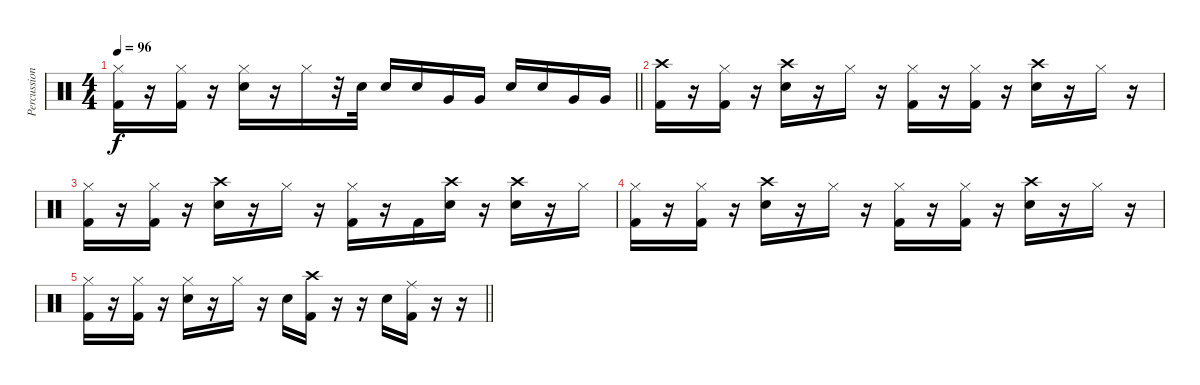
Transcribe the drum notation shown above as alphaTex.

\track ("Percussion" "Percussion") {instrument percussion}
\staff {score}
\articulation defaults
\ts (4 4)
\tempo 96
\clef neutral
\barLineRight lightlight
\ks c
("Hi-Hat (closed)" "Kick (hit) 2").16{dy f} r.16 ("Hi-Hat (closed)" "Kick (hit) 2").16 r.16 ("Hi-Hat (closed)" "Snare (hit) 2").16 r.16 "Hi-Hat (closed)".16 r.32 "Snare (hit) 2".32 "Snare (hit) 2".16 "Snare (hit) 2".16 "Very Low Tom (hit)".16 "Very Low Tom (hit)".16 "Snare (hit) 2".16 "Snare (hit) 2".16 "Very Low Tom (hit)".16 "Very Low Tom (hit)".16 |
("Crash high (hit)" "Kick (hit) 2").16 r.16 ("Hi-Hat (closed)" "Kick (hit) 2").16 r.16 ("Crash high (hit)" "Snare (hit) 2").16 r.16 "Hi-Hat (closed)".16 r.16 ("Hi-Hat (closed)" "Kick (hit) 2").16 r.16 ("Hi-Hat (closed)" "Kick (hit) 2").16 r.16 ("Crash high (hit)" "Snare (hit) 2").16 r.16 "Hi-Hat (closed)".16 r.16 |
("Hi-Hat (closed)" "Kick (hit) 2").16 r.16 ("Hi-Hat (closed)" "Kick (hit) 2").16 r.16 ("Crash high (hit)" "Snare (hit) 2").16 r.16 "Hi-Hat (closed)".16 r.16 ("Hi-Hat (closed)" "Kick (hit) 2").16 r.16 "Kick (hit) 2".16 ("Crash high (hit)" "Snare (hit) 2").16 r.16 ("Crash high (hit)" "Snare (hit) 2").16 r.16 "Hi-Hat (closed)".16 |
("Hi-Hat (closed)" "Kick (hit) 2").16 r.16 ("Hi-Hat (closed)" "Kick (hit) 2").16 r.16 ("Crash high (hit)" "Snare (hit) 2").16 r.16 "Hi-Hat (closed)".16 r.16 ("Hi-Hat (closed)" "Kick (hit) 2").16 r.16 ("Hi-Hat (closed)" "Kick (hit) 2").16 r.16 ("Crash high (hit)" "Snare (hit) 2").16 r.16 "Hi-Hat (closed)".16 r.16 |
\barLineRight lightlight
("Hi-Hat (closed)" "Kick (hit) 2").16 r.16 ("Hi-Hat (closed)" "Kick (hit) 2").16 r.16 ("Hi-Hat (closed)" "Snare (hit) 2").16 r.16 "Hi-Hat (closed)".16 r.16 "Snare (hit) 2".16 ("Crash high (hit)" "Kick (hit) 2").16 r.16 r.16 "Snare (hit) 2".16 ("Ride (middle)" "Kick (hit) 2").16 r.16 r.16
